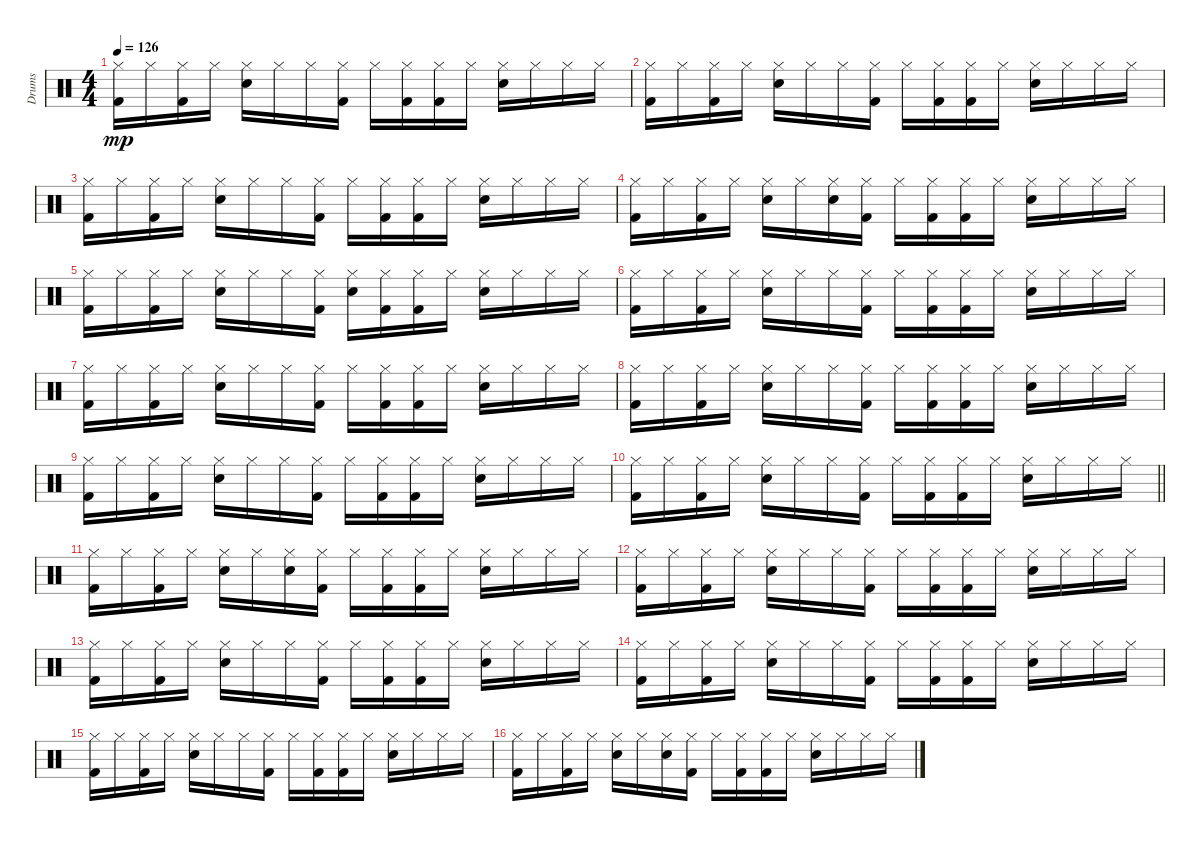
\track ("Drums" "Drums") {instrument percussion}
\staff {score}
\articulation defaults
\ts (4 4)
\tempo 126
\clef neutral
\ks c
("Hi-Hat (closed)" "Kick (hit) 2").16{dy mp} "Hi-Hat (closed)".16 ("Hi-Hat (closed)" "Kick (hit) 2").16 "Hi-Hat (closed)".16 ("Hi-Hat (closed)" "Snare (hit) 2").16 "Hi-Hat (closed)".16 "Hi-Hat (closed)".16 ("Hi-Hat (closed)" "Kick (hit) 2").16 "Hi-Hat (closed)".16 ("Hi-Hat (closed)" "Kick (hit) 2").16 ("Hi-Hat (closed)" "Kick (hit) 2").16 "Hi-Hat (closed)".16 ("Hi-Hat (closed)" "Snare (hit) 2").16 "Hi-Hat (closed)".16 "Hi-Hat (closed)".16 "Hi-Hat (closed)".16 |
("Hi-Hat (closed)" "Kick (hit) 2").16 "Hi-Hat (closed)".16 ("Hi-Hat (closed)" "Kick (hit) 2").16 "Hi-Hat (closed)".16 ("Hi-Hat (closed)" "Snare (hit) 2").16 "Hi-Hat (closed)".16 "Hi-Hat (closed)".16 ("Hi-Hat (closed)" "Kick (hit) 2").16 "Hi-Hat (closed)".16 ("Hi-Hat (closed)" "Kick (hit) 2").16 ("Hi-Hat (closed)" "Kick (hit) 2").16 "Hi-Hat (closed)".16 ("Hi-Hat (closed)" "Snare (hit) 2").16 "Hi-Hat (closed)".16 "Hi-Hat (closed)".16 "Hi-Hat (closed)".16 |
("Hi-Hat (closed)" "Kick (hit) 2").16 "Hi-Hat (closed)".16 ("Hi-Hat (closed)" "Kick (hit) 2").16 "Hi-Hat (closed)".16 ("Hi-Hat (closed)" "Snare (hit) 2").16 "Hi-Hat (closed)".16 "Hi-Hat (closed)".16 ("Hi-Hat (closed)" "Kick (hit) 2").16 "Hi-Hat (closed)".16 ("Hi-Hat (closed)" "Kick (hit) 2").16 ("Hi-Hat (closed)" "Kick (hit) 2").16 "Hi-Hat (closed)".16 ("Hi-Hat (closed)" "Snare (hit) 2").16 "Hi-Hat (closed)".16 "Hi-Hat (closed)".16 "Hi-Hat (closed)".16 |
("Hi-Hat (closed)" "Kick (hit) 2").16 "Hi-Hat (closed)".16 ("Hi-Hat (closed)" "Kick (hit) 2").16 "Hi-Hat (closed)".16 ("Hi-Hat (closed)" "Snare (hit) 2").16 "Hi-Hat (closed)".16 ("Hi-Hat (closed)" "Snare (hit) 2").16 ("Hi-Hat (closed)" "Kick (hit) 2").16 "Hi-Hat (closed)".16 ("Hi-Hat (closed)" "Kick (hit) 2").16 ("Hi-Hat (closed)" "Kick (hit) 2").16 "Hi-Hat (closed)".16 ("Hi-Hat (closed)" "Snare (hit) 2").16 "Hi-Hat (closed)".16 "Hi-Hat (closed)".16 "Hi-Hat (closed)".16 |
("Hi-Hat (closed)" "Kick (hit) 2").16 "Hi-Hat (closed)".16 ("Hi-Hat (closed)" "Kick (hit) 2").16 "Hi-Hat (closed)".16 ("Hi-Hat (closed)" "Snare (hit) 2").16 "Hi-Hat (closed)".16 "Hi-Hat (closed)".16 ("Hi-Hat (closed)" "Kick (hit) 2").16 ("Hi-Hat (closed)" "Snare (hit) 2").16 ("Hi-Hat (closed)" "Kick (hit) 2").16 ("Hi-Hat (closed)" "Kick (hit) 2").16 "Hi-Hat (closed)".16 ("Hi-Hat (closed)" "Snare (hit) 2").16 "Hi-Hat (closed)".16 "Hi-Hat (closed)".16 "Hi-Hat (closed)".16 |
("Hi-Hat (closed)" "Kick (hit) 2").16 "Hi-Hat (closed)".16 ("Hi-Hat (closed)" "Kick (hit) 2").16 "Hi-Hat (closed)".16 ("Hi-Hat (closed)" "Snare (hit) 2").16 "Hi-Hat (closed)".16 "Hi-Hat (closed)".16 ("Hi-Hat (closed)" "Kick (hit) 2").16 "Hi-Hat (closed)".16 ("Hi-Hat (closed)" "Kick (hit) 2").16 ("Hi-Hat (closed)" "Kick (hit) 2").16 "Hi-Hat (closed)".16 ("Hi-Hat (closed)" "Snare (hit) 2").16 "Hi-Hat (closed)".16 "Hi-Hat (closed)".16 "Hi-Hat (closed)".16 |
("Hi-Hat (closed)" "Kick (hit) 2").16 "Hi-Hat (closed)".16 ("Hi-Hat (closed)" "Kick (hit) 2").16 "Hi-Hat (closed)".16 ("Hi-Hat (closed)" "Snare (hit) 2").16 "Hi-Hat (closed)".16 "Hi-Hat (closed)".16 ("Hi-Hat (closed)" "Kick (hit) 2").16 "Hi-Hat (closed)".16 ("Hi-Hat (closed)" "Kick (hit) 2").16 ("Hi-Hat (closed)" "Kick (hit) 2").16 "Hi-Hat (closed)".16 ("Hi-Hat (closed)" "Snare (hit) 2").16 "Hi-Hat (closed)".16 "Hi-Hat (closed)".16 "Hi-Hat (closed)".16 |
("Hi-Hat (closed)" "Kick (hit) 2").16 "Hi-Hat (closed)".16 ("Hi-Hat (closed)" "Kick (hit) 2").16 "Hi-Hat (closed)".16 ("Hi-Hat (closed)" "Snare (hit) 2").16 "Hi-Hat (closed)".16 "Hi-Hat (closed)".16 ("Hi-Hat (closed)" "Kick (hit) 2").16 "Hi-Hat (closed)".16 ("Hi-Hat (closed)" "Kick (hit) 2").16 ("Hi-Hat (closed)" "Kick (hit) 2").16 "Hi-Hat (closed)".16 ("Hi-Hat (closed)" "Snare (hit) 2").16 "Hi-Hat (closed)".16 "Hi-Hat (closed)".16 "Hi-Hat (closed)".16 |
("Hi-Hat (closed)" "Kick (hit) 2").16 "Hi-Hat (closed)".16 ("Hi-Hat (closed)" "Kick (hit) 2").16 "Hi-Hat (closed)".16 ("Hi-Hat (closed)" "Snare (hit) 2").16 "Hi-Hat (closed)".16 "Hi-Hat (closed)".16 ("Hi-Hat (closed)" "Kick (hit) 2").16 "Hi-Hat (closed)".16 ("Hi-Hat (closed)" "Kick (hit) 2").16 ("Hi-Hat (closed)" "Kick (hit) 2").16 "Hi-Hat (closed)".16 ("Hi-Hat (closed)" "Snare (hit) 2").16 "Hi-Hat (closed)".16 "Hi-Hat (closed)".16 "Hi-Hat (closed)".16 |
\barLineRight lightlight
("Hi-Hat (closed)" "Kick (hit) 2").16 "Hi-Hat (closed)".16 ("Hi-Hat (closed)" "Kick (hit) 2").16 "Hi-Hat (closed)".16 ("Hi-Hat (closed)" "Snare (hit) 2").16 "Hi-Hat (closed)".16 "Hi-Hat (closed)".16 ("Hi-Hat (closed)" "Kick (hit) 2").16 "Hi-Hat (closed)".16 ("Hi-Hat (closed)" "Kick (hit) 2").16 ("Hi-Hat (closed)" "Kick (hit) 2").16 "Hi-Hat (closed)".16 ("Hi-Hat (closed)" "Snare (hit) 2").16 "Hi-Hat (closed)".16 "Hi-Hat (closed)".16 "Hi-Hat (closed)".16 |
("Hi-Hat (closed)" "Kick (hit) 2").16 "Hi-Hat (closed)".16 ("Hi-Hat (closed)" "Kick (hit) 2").16 "Hi-Hat (closed)".16 ("Hi-Hat (closed)" "Snare (hit) 2").16 "Hi-Hat (closed)".16 ("Hi-Hat (closed)" "Snare (hit) 2").16 ("Hi-Hat (closed)" "Kick (hit) 2").16 "Hi-Hat (closed)".16 ("Hi-Hat (closed)" "Kick (hit) 2").16 ("Hi-Hat (closed)" "Kick (hit) 2").16 "Hi-Hat (closed)".16 ("Hi-Hat (closed)" "Snare (hit) 2").16 "Hi-Hat (closed)".16 "Hi-Hat (closed)".16 "Hi-Hat (closed)".16 |
("Hi-Hat (closed)" "Kick (hit) 2").16 "Hi-Hat (closed)".16 ("Hi-Hat (closed)" "Kick (hit) 2").16 "Hi-Hat (closed)".16 ("Hi-Hat (closed)" "Snare (hit) 2").16 "Hi-Hat (closed)".16 "Hi-Hat (closed)".16 ("Hi-Hat (closed)" "Kick (hit) 2").16 "Hi-Hat (closed)".16 ("Hi-Hat (closed)" "Kick (hit) 2").16 ("Hi-Hat (closed)" "Kick (hit) 2").16 "Hi-Hat (closed)".16 ("Hi-Hat (closed)" "Snare (hit) 2").16 "Hi-Hat (closed)".16 "Hi-Hat (closed)".16 "Hi-Hat (closed)".16 |
("Hi-Hat (closed)" "Kick (hit) 2").16 "Hi-Hat (closed)".16 ("Hi-Hat (closed)" "Kick (hit) 2").16 "Hi-Hat (closed)".16 ("Hi-Hat (closed)" "Snare (hit) 2").16 "Hi-Hat (closed)".16 "Hi-Hat (closed)".16 ("Hi-Hat (closed)" "Kick (hit) 2").16 "Hi-Hat (closed)".16 ("Hi-Hat (closed)" "Kick (hit) 2").16 ("Hi-Hat (closed)" "Kick (hit) 2").16 "Hi-Hat (closed)".16 ("Hi-Hat (closed)" "Snare (hit) 2").16 "Hi-Hat (closed)".16 "Hi-Hat (closed)".16 "Hi-Hat (closed)".16 |
("Hi-Hat (closed)" "Kick (hit) 2").16 "Hi-Hat (closed)".16 ("Hi-Hat (closed)" "Kick (hit) 2").16 "Hi-Hat (closed)".16 ("Hi-Hat (closed)" "Snare (hit) 2").16 "Hi-Hat (closed)".16 "Hi-Hat (closed)".16 ("Hi-Hat (closed)" "Kick (hit) 2").16 "Hi-Hat (closed)".16 ("Hi-Hat (closed)" "Kick (hit) 2").16 ("Hi-Hat (closed)" "Kick (hit) 2").16 "Hi-Hat (closed)".16 ("Hi-Hat (closed)" "Snare (hit) 2").16 "Hi-Hat (closed)".16 "Hi-Hat (closed)".16 "Hi-Hat (closed)".16 |
("Hi-Hat (closed)" "Kick (hit) 2").16 "Hi-Hat (closed)".16 ("Hi-Hat (closed)" "Kick (hit) 2").16 "Hi-Hat (closed)".16 ("Hi-Hat (closed)" "Snare (hit) 2").16 "Hi-Hat (closed)".16 "Hi-Hat (closed)".16 ("Hi-Hat (closed)" "Kick (hit) 2").16 "Hi-Hat (closed)".16 ("Hi-Hat (closed)" "Kick (hit) 2").16 ("Hi-Hat (closed)" "Kick (hit) 2").16 "Hi-Hat (closed)".16 ("Hi-Hat (closed)" "Snare (hit) 2").16 "Hi-Hat (closed)".16 "Hi-Hat (closed)".16 "Hi-Hat (closed)".16 |
("Hi-Hat (closed)" "Kick (hit) 2").16 "Hi-Hat (closed)".16 ("Hi-Hat (closed)" "Kick (hit) 2").16 "Hi-Hat (closed)".16 ("Hi-Hat (closed)" "Snare (hit) 2").16 "Hi-Hat (closed)".16 ("Hi-Hat (closed)" "Snare (hit) 2").16 ("Hi-Hat (closed)" "Kick (hit) 2").16 "Hi-Hat (closed)".16 ("Hi-Hat (closed)" "Kick (hit) 2").16 ("Hi-Hat (closed)" "Kick (hit) 2").16 "Hi-Hat (closed)".16 ("Hi-Hat (closed)" "Snare (hit) 2").16 "Hi-Hat (closed)".16 "Hi-Hat (closed)".16 "Hi-Hat (closed)".16
